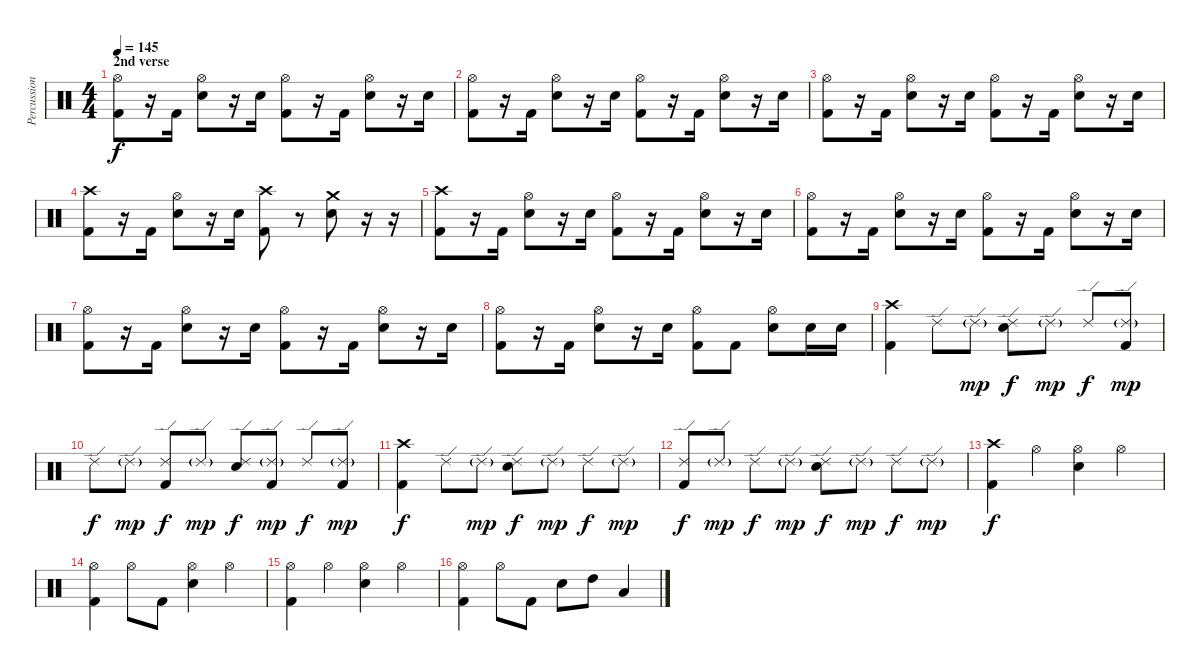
\track ("Percussion" "Percussion") {instrument percussion}
\staff {score}
\articulation defaults
\ts (4 4)
\section ("" "2nd verse")
\tempo 145
\clef neutral
\ks c
("Hi-Hat (open)" "Kick (hit) 2").8{dy f} r.16 "Kick (hit) 2".16 ("Electric Snare (hit)" "Hi-Hat (open)").8 r.16 "Electric Snare (hit)".16 ("Kick (hit) 2" "Hi-Hat (open)").8 r.16 "Kick (hit) 2".16 ("Hi-Hat (open)" "Electric Snare (hit)").8 r.16 "Electric Snare (hit)".16 |
("Hi-Hat (open)" "Kick (hit) 2").8 r.16 "Kick (hit) 2".16 ("Electric Snare (hit)" "Hi-Hat (open)").8 r.16 "Electric Snare (hit)".16 ("Kick (hit) 2" "Hi-Hat (open)").8 r.16 "Kick (hit) 2".16 ("Hi-Hat (open)" "Electric Snare (hit)").8 r.16 "Electric Snare (hit)".16 |
("Hi-Hat (open)" "Kick (hit) 2").8 r.16 "Kick (hit) 2".16 ("Electric Snare (hit)" "Hi-Hat (open)").8 r.16 "Electric Snare (hit)".16 ("Kick (hit) 2" "Hi-Hat (open)").8 r.16 "Kick (hit) 2".16 ("Hi-Hat (open)" "Electric Snare (hit)").8 r.16 "Electric Snare (hit)".16 |
("Crash high (hit)" "Kick (hit) 2").8 r.16 "Kick (hit) 2".16 ("Electric Snare (hit)" "Hi-Hat (open)").8 r.16 "Electric Snare (hit)".16 ("Kick (hit) 2" "Crash high (hit)").8 r.8 ("Crash medium (hit)" "Electric Snare (hit)").8 r.16 r.16 |
("Crash high (hit)" "Kick (hit) 2").8 r.16 "Kick (hit) 2".16 ("Electric Snare (hit)" "Hi-Hat (open)").8 r.16 "Electric Snare (hit)".16 ("Kick (hit) 2" "Hi-Hat (open)").8 r.16 "Kick (hit) 2".16 ("Hi-Hat (open)" "Electric Snare (hit)").8 r.16 "Electric Snare (hit)".16 |
("Hi-Hat (open)" "Kick (hit) 2").8 r.16 "Kick (hit) 2".16 ("Electric Snare (hit)" "Hi-Hat (open)").8 r.16 "Electric Snare (hit)".16 ("Kick (hit) 2" "Hi-Hat (open)").8 r.16 "Kick (hit) 2".16 ("Hi-Hat (open)" "Electric Snare (hit)").8 r.16 "Electric Snare (hit)".16 |
("Hi-Hat (open)" "Kick (hit) 2").8 r.16 "Kick (hit) 2".16 ("Electric Snare (hit)" "Hi-Hat (open)").8 r.16 "Electric Snare (hit)".16 ("Kick (hit) 2" "Hi-Hat (open)").8 r.16 "Kick (hit) 2".16 ("Hi-Hat (open)" "Electric Snare (hit)").8 r.16 "Electric Snare (hit)".16 |
("Hi-Hat (open)" "Kick (hit) 2").8 r.16 "Kick (hit) 2".16 ("Electric Snare (hit)" "Hi-Hat (open)").8 r.16 "Electric Snare (hit)".16 ("Kick (hit) 2" "Hi-Hat (open)").8 "Kick (hit) 2".8 ("Hi-Hat (open)" "Electric Snare (hit)").8 "Electric Snare (hit)".16 "Electric Snare (hit)".16 |
("Kick (hit) 2" "Crash high (hit)").4 "Ride (edge) 2".8 "Ride (edge) 2"{g}.8{dy mp} ("Electric Snare (hit)" "Ride (edge) 2").8{dy f} "Ride (edge) 2"{g}.8{dy mp} "Ride (edge) 2".8{dy f} ("Kick (hit) 2" "Ride (edge) 2"{g}).8{dy mp} |
"Ride (edge) 2".8{dy f} "Ride (edge) 2"{g}.8{dy mp} ("Kick (hit) 2" "Ride (edge) 2").8{dy f} "Ride (edge) 2"{g}.8{dy mp} ("Electric Snare (hit)" "Ride (edge) 2").8{dy f} ("Kick (hit) 2" "Ride (edge) 2"{g}).8{dy mp} "Ride (edge) 2".8{dy f} ("Kick (hit) 2" "Ride (edge) 2"{g}).8{dy mp} |
("Kick (hit) 2" "Crash high (hit)").4{dy f} "Ride (edge) 2".8 "Ride (edge) 2"{g}.8{dy mp} ("Electric Snare (hit)" "Ride (edge) 2").8{dy f} "Ride (edge) 2"{g}.8{dy mp} "Ride (edge) 2".8{dy f} "Ride (edge) 2"{g}.8{dy mp} |
("Kick (hit) 2" "Ride (edge) 2").8{dy f} "Ride (edge) 2"{g}.8{dy mp} "Ride (edge) 2".8{dy f} "Ride (edge) 2"{g}.8{dy mp} ("Electric Snare (hit)" "Ride (edge) 2").8{dy f} "Ride (edge) 2"{g}.8{dy mp} "Ride (edge) 2".8{dy f} "Ride (edge) 2"{g}.8{dy mp} |
("Kick (hit) 2" "Crash high (hit)").4{dy f} "Hi-Hat (open)".4 ("Electric Snare (hit)" "Hi-Hat (open)").4 "Hi-Hat (open)".4 |
("Kick (hit) 2" "Hi-Hat (open)").4 "Hi-Hat (open)".8 "Kick (hit) 2".8 ("Electric Snare (hit)" "Hi-Hat (open)").4 "Hi-Hat (open)".4 |
("Kick (hit) 2" "Hi-Hat (open)").4 "Hi-Hat (open)".4 ("Electric Snare (hit)" "Hi-Hat (open)").4 "Hi-Hat (open)".4 |
("Kick (hit) 2" "Hi-Hat (open)").4 "Hi-Hat (open)".8 "Kick (hit) 2".8 "Electric Snare (hit)".8 "High Tom (hit)".8 "Low Tom (hit)".4
